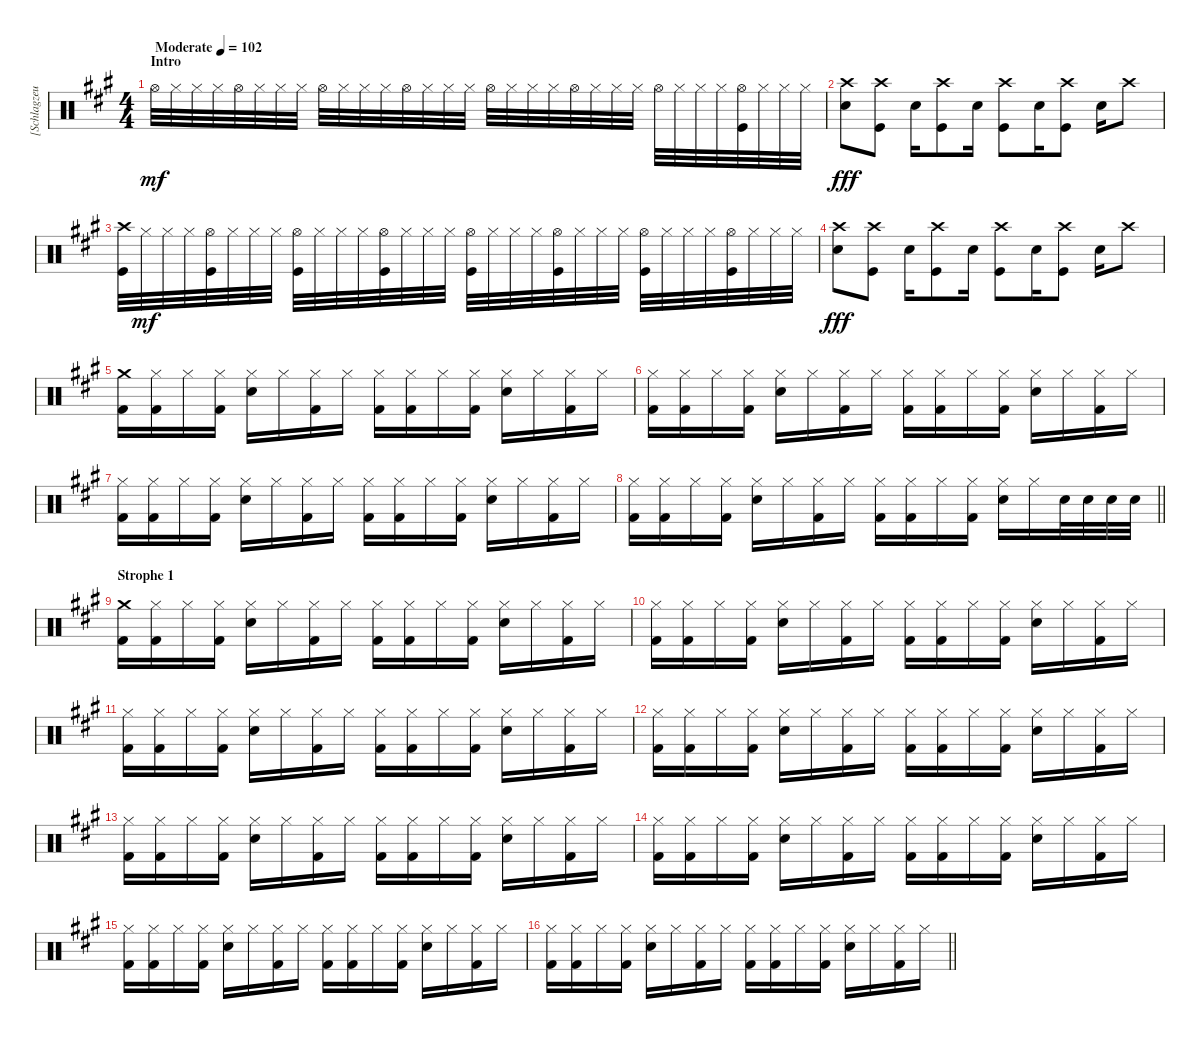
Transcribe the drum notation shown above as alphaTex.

\track ("[Schlagzeug]" "[Schlagzeu") {instrument percussion}
\staff {score}
\articulation defaults
\ts (4 4)
\section ("" "Intro")
\tempo (102 "Moderate")
\clef neutral
\ks f#minor "Hi-Hat (open)".32{dy mf} "Hi-Hat (closed)".32 "Hi-Hat (closed)".32 "Hi-Hat (closed)".32 "Hi-Hat (open)".32 "Hi-Hat (closed)".32 "Hi-Hat (closed)".32 "Hi-Hat (closed)".32 "Hi-Hat (open)".32 "Hi-Hat (closed)".32 "Hi-Hat (closed)".32 "Hi-Hat (closed)".32 "Hi-Hat (open)".32 "Hi-Hat (closed)".32 "Hi-Hat (closed)".32 "Hi-Hat (closed)".32 "Hi-Hat (open)".32 "Hi-Hat (closed)".32 "Hi-Hat (closed)".32 "Hi-Hat (closed)".32 "Hi-Hat (open)".32 "Hi-Hat (closed)".32 "Hi-Hat (closed)".32 "Hi-Hat (closed)".32 "Hi-Hat (open)".32 "Hi-Hat (closed)".32 "Hi-Hat (closed)".32 "Hi-Hat (closed)".32
("Kick (hit)" "Hi-Hat (open)").32 "Hi-Hat (closed)".32 "Hi-Hat (closed)".32 "Hi-Hat (closed)".32 |
("Crash high (hit)" "Electric Snare (hit)").8{dy fff} ("Crash high (hit)" "Kick (hit)").8 "Electric Snare (hit)".16 ("Crash high (hit)" "Kick (hit)").8 "Electric Snare (hit)".16 ("Crash high (hit)" "Kick (hit)").8 "Electric Snare (hit)".16 ("Crash high (hit)" "Kick (hit)").8 "Electric Snare (hit)".16 "Crash high (hit)".8 |
("Kick (hit)" "Crash high (hit)").32 "Hi-Hat (closed)".32{dy mf} "Hi-Hat (closed)".32 "Hi-Hat (closed)".32 ("Kick (hit)" "Hi-Hat (open)").32 "Hi-Hat (closed)".32 "Hi-Hat (closed)".32 "Hi-Hat (closed)".32 ("Kick (hit)" "Hi-Hat (open)").32 "Hi-Hat (closed)".32 "Hi-Hat (closed)".32 "Hi-Hat (closed)".32 ("Kick (hit)" "Hi-Hat (open)").32 "Hi-Hat (closed)".32 "Hi-Hat (closed)".32 "Hi-Hat (closed)".32 ("Kick (hit)" "Hi-Hat (open)").32 "Hi-Hat (closed)".32 "Hi-Hat (closed)".32 "Hi-Hat (closed)".32 ("Kick (hit)" "Hi-Hat (open)").32 "Hi-Hat (closed)".32 "Hi-Hat (closed)".32 "Hi-Hat (closed)".32 ("Kick (hit)" "Hi-Hat (open)").32 "Hi-Hat (closed)".32 "Hi-Hat (closed)".32 "Hi-Hat (closed)".32 ("Kick (hit)" "Hi-Hat (open)").32 "Hi-Hat (closed)".32 "Hi-Hat (closed)".32 "Hi-Hat (closed)".32 |
("Crash high (hit)" "Electric Snare (hit)").8{dy fff} ("Crash high (hit)" "Kick (hit)").8 "Electric Snare (hit)".16 ("Crash high (hit)" "Kick (hit)").8 "Electric Snare (hit)".16 ("Crash high (hit)" "Kick (hit)").8 "Electric Snare (hit)".16 ("Crash high (hit)" "Kick (hit)").8 "Electric Snare (hit)".16 "Crash high (hit)".8 |
("Kick (hit) 2" "Crash medium (hit)").16 ("Kick (hit) 2" "Hi-Hat (closed)").16 "Hi-Hat (closed)".16 ("Kick (hit) 2" "Hi-Hat (closed)").16 ("Electric Snare (hit)" "Hi-Hat (closed)").16 "Hi-Hat (closed)".16 ("Kick (hit) 2" "Hi-Hat (closed)").16 "Hi-Hat (closed)".16 ("Kick (hit) 2" "Hi-Hat (closed)").16 ("Kick (hit) 2" "Hi-Hat (closed)").16 "Hi-Hat (closed)".16 ("Kick (hit) 2" "Hi-Hat (closed)").16 ("Electric Snare (hit)" "Hi-Hat (closed)").16 "Hi-Hat (closed)".16 ("Kick (hit) 2" "Hi-Hat (closed)").16 "Hi-Hat (closed)".16 |
("Kick (hit) 2" "Hi-Hat (closed)").16 ("Kick (hit) 2" "Hi-Hat (closed)").16 "Hi-Hat (closed)".16 ("Kick (hit) 2" "Hi-Hat (closed)").16 ("Electric Snare (hit)" "Hi-Hat (closed)").16 "Hi-Hat (closed)".16 ("Kick (hit) 2" "Hi-Hat (closed)").16 "Hi-Hat (closed)".16 ("Kick (hit) 2" "Hi-Hat (closed)").16 ("Kick (hit) 2" "Hi-Hat (closed)").16 "Hi-Hat (closed)".16 ("Kick (hit) 2" "Hi-Hat (closed)").16 ("Electric Snare (hit)" "Hi-Hat (closed)").16 "Hi-Hat (closed)".16 ("Kick (hit) 2" "Hi-Hat (closed)").16 "Hi-Hat (closed)".16 |
("Kick (hit) 2" "Hi-Hat (closed)").16 ("Kick (hit) 2" "Hi-Hat (closed)").16 "Hi-Hat (closed)".16 ("Kick (hit) 2" "Hi-Hat (closed)").16 ("Electric Snare (hit)" "Hi-Hat (closed)").16 "Hi-Hat (closed)".16 ("Kick (hit) 2" "Hi-Hat (closed)").16 "Hi-Hat (closed)".16 ("Kick (hit) 2" "Hi-Hat (closed)").16 ("Kick (hit) 2" "Hi-Hat (closed)").16 "Hi-Hat (closed)".16 ("Kick (hit) 2" "Hi-Hat (closed)").16 ("Electric Snare (hit)" "Hi-Hat (closed)").16 "Hi-Hat (closed)".16 ("Kick (hit) 2" "Hi-Hat (closed)").16 "Hi-Hat (closed)".16 |
\barLineRight lightlight
("Kick (hit) 2" "Hi-Hat (closed)").16 ("Kick (hit) 2" "Hi-Hat (closed)").16 "Hi-Hat (closed)".16 ("Kick (hit) 2" "Hi-Hat (closed)").16 ("Electric Snare (hit)" "Hi-Hat (closed)").16 "Hi-Hat (closed)".16 ("Kick (hit) 2" "Hi-Hat (closed)").16 "Hi-Hat (closed)".16 ("Kick (hit) 2" "Hi-Hat (closed)").16 ("Kick (hit) 2" "Hi-Hat (closed)").16 "Hi-Hat (closed)".16 ("Kick (hit) 2" "Hi-Hat (closed)").16 ("Electric Snare (hit)" "Hi-Hat (closed)").16 "Hi-Hat (closed)".16 "Electric Snare (hit)".32 "Electric Snare (hit)".32 "Electric Snare (hit)".32 "Electric Snare (hit)".32 |
\section ("" "Strophe 1")
("Kick (hit) 2" "Crash medium (hit)").16 ("Kick (hit) 2" "Hi-Hat (closed)").16 "Hi-Hat (closed)".16 ("Kick (hit) 2" "Hi-Hat (closed)").16 ("Electric Snare (hit)" "Hi-Hat (closed)").16 "Hi-Hat (closed)".16 ("Kick (hit) 2" "Hi-Hat (closed)").16 "Hi-Hat (closed)".16 ("Kick (hit) 2" "Hi-Hat (closed)").16 ("Kick (hit) 2" "Hi-Hat (closed)").16 "Hi-Hat (closed)".16 ("Kick (hit) 2" "Hi-Hat (closed)").16 ("Electric Snare (hit)" "Hi-Hat (closed)").16 "Hi-Hat (closed)".16 ("Kick (hit) 2" "Hi-Hat (closed)").16 "Hi-Hat (closed)".16 |
("Kick (hit) 2" "Hi-Hat (closed)").16 ("Kick (hit) 2" "Hi-Hat (closed)").16 "Hi-Hat (closed)".16 ("Kick (hit) 2" "Hi-Hat (closed)").16 ("Electric Snare (hit)" "Hi-Hat (closed)").16 "Hi-Hat (closed)".16 ("Kick (hit) 2" "Hi-Hat (closed)").16 "Hi-Hat (closed)".16 ("Kick (hit) 2" "Hi-Hat (closed)").16 ("Kick (hit) 2" "Hi-Hat (closed)").16 "Hi-Hat (closed)".16 ("Kick (hit) 2" "Hi-Hat (closed)").16 ("Electric Snare (hit)" "Hi-Hat (closed)").16 "Hi-Hat (closed)".16 ("Kick (hit) 2" "Hi-Hat (closed)").16 "Hi-Hat (closed)".16 |
("Kick (hit) 2" "Hi-Hat (closed)").16 ("Kick (hit) 2" "Hi-Hat (closed)").16 "Hi-Hat (closed)".16 ("Kick (hit) 2" "Hi-Hat (closed)").16 ("Electric Snare (hit)" "Hi-Hat (closed)").16 "Hi-Hat (closed)".16 ("Kick (hit) 2" "Hi-Hat (closed)").16 "Hi-Hat (closed)".16 ("Kick (hit) 2" "Hi-Hat (closed)").16 ("Kick (hit) 2" "Hi-Hat (closed)").16 "Hi-Hat (closed)".16 ("Kick (hit) 2" "Hi-Hat (closed)").16 ("Electric Snare (hit)" "Hi-Hat (closed)").16 "Hi-Hat (closed)".16 ("Kick (hit) 2" "Hi-Hat (closed)").16 "Hi-Hat (closed)".16 |
("Kick (hit) 2" "Hi-Hat (closed)").16 ("Kick (hit) 2" "Hi-Hat (closed)").16 "Hi-Hat (closed)".16 ("Kick (hit) 2" "Hi-Hat (closed)").16 ("Electric Snare (hit)" "Hi-Hat (closed)").16 "Hi-Hat (closed)".16 ("Kick (hit) 2" "Hi-Hat (closed)").16 "Hi-Hat (closed)".16 ("Kick (hit) 2" "Hi-Hat (closed)").16 ("Kick (hit) 2" "Hi-Hat (closed)").16 "Hi-Hat (closed)".16 ("Kick (hit) 2" "Hi-Hat (closed)").16 ("Electric Snare (hit)" "Hi-Hat (closed)").16 "Hi-Hat (closed)".16 ("Kick (hit) 2" "Hi-Hat (closed)").16 "Hi-Hat (closed)".16 |
("Kick (hit) 2" "Hi-Hat (closed)").16 ("Kick (hit) 2" "Hi-Hat (closed)").16 "Hi-Hat (closed)".16 ("Kick (hit) 2" "Hi-Hat (closed)").16 ("Electric Snare (hit)" "Hi-Hat (closed)").16 "Hi-Hat (closed)".16 ("Kick (hit) 2" "Hi-Hat (closed)").16 "Hi-Hat (closed)".16 ("Kick (hit) 2" "Hi-Hat (closed)").16 ("Kick (hit) 2" "Hi-Hat (closed)").16 "Hi-Hat (closed)".16 ("Kick (hit) 2" "Hi-Hat (closed)").16 ("Electric Snare (hit)" "Hi-Hat (closed)").16 "Hi-Hat (closed)".16 ("Kick (hit) 2" "Hi-Hat (closed)").16 "Hi-Hat (closed)".16 |
("Kick (hit) 2" "Hi-Hat (closed)").16 ("Kick (hit) 2" "Hi-Hat (closed)").16 "Hi-Hat (closed)".16 ("Kick (hit) 2" "Hi-Hat (closed)").16 ("Electric Snare (hit)" "Hi-Hat (closed)").16 "Hi-Hat (closed)".16 ("Kick (hit) 2" "Hi-Hat (closed)").16 "Hi-Hat (closed)".16 ("Kick (hit) 2" "Hi-Hat (closed)").16 ("Kick (hit) 2" "Hi-Hat (closed)").16 "Hi-Hat (closed)".16 ("Kick (hit) 2" "Hi-Hat (closed)").16 ("Electric Snare (hit)" "Hi-Hat (closed)").16 "Hi-Hat (closed)".16 ("Kick (hit) 2" "Hi-Hat (closed)").16 "Hi-Hat (closed)".16 |
("Kick (hit) 2" "Hi-Hat (closed)").16 ("Kick (hit) 2" "Hi-Hat (closed)").16 "Hi-Hat (closed)".16 ("Kick (hit) 2" "Hi-Hat (closed)").16 ("Electric Snare (hit)" "Hi-Hat (closed)").16 "Hi-Hat (closed)".16 ("Kick (hit) 2" "Hi-Hat (closed)").16 "Hi-Hat (closed)".16 ("Kick (hit) 2" "Hi-Hat (closed)").16 ("Kick (hit) 2" "Hi-Hat (closed)").16 "Hi-Hat (closed)".16 ("Kick (hit) 2" "Hi-Hat (closed)").16 ("Electric Snare (hit)" "Hi-Hat (closed)").16 "Hi-Hat (closed)".16 ("Kick (hit) 2" "Hi-Hat (closed)").16 "Hi-Hat (closed)".16 |
\barLineRight lightlight
("Kick (hit) 2" "Hi-Hat (closed)").16 ("Kick (hit) 2" "Hi-Hat (closed)").16 "Hi-Hat (closed)".16 ("Kick (hit) 2" "Hi-Hat (closed)").16 ("Electric Snare (hit)" "Hi-Hat (closed)").16 "Hi-Hat (closed)".16 ("Kick (hit) 2" "Hi-Hat (closed)").16 "Hi-Hat (closed)".16 ("Kick (hit) 2" "Hi-Hat (closed)").16 ("Kick (hit) 2" "Hi-Hat (closed)").16 "Hi-Hat (closed)".16 ("Kick (hit) 2" "Hi-Hat (closed)").16 ("Electric Snare (hit)" "Hi-Hat (closed)").16 "Hi-Hat (closed)".16 ("Kick (hit) 2" "Hi-Hat (closed)").16 "Hi-Hat (closed)".16
